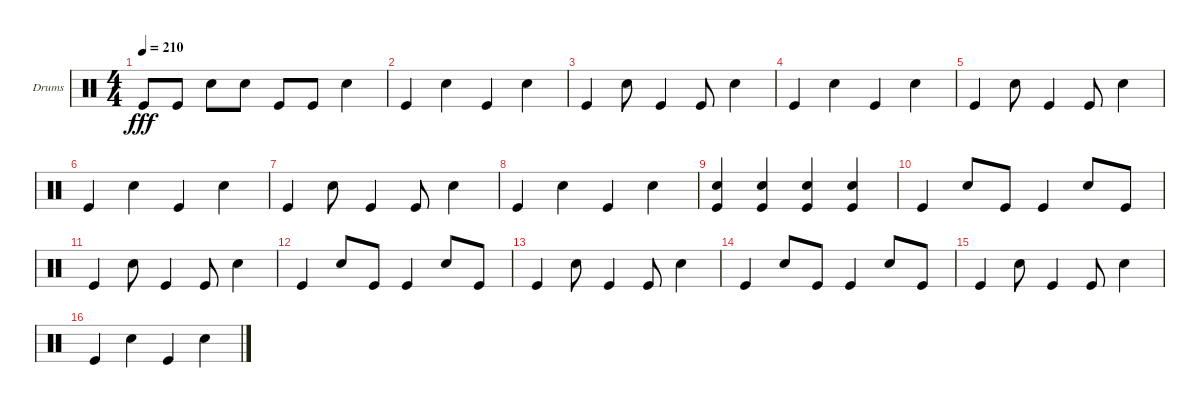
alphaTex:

\defaultSystemsLayout 4
\bracketExtendMode groupsimilarinstruments
\firstSystemTrackNameOrientation horizontal
\otherSystemsTrackNameOrientation horizontal
\track ("Helders" "Drums") {instrument percussion}
\staff {score}
\articulation defaults
\ts (4 4)
\tempo 210
\clef neutral
\ks c "Kick (hit)".8{dy fff} "Kick (hit)".8 "Snare (hit) 2".8 "Snare (hit) 2".8 "Kick (hit)".8 "Kick (hit)".8 "Snare (hit) 2".4
|
"Kick (hit)".4 "Snare (hit) 2".4 "Kick (hit)".4 "Snare (hit) 2".4 |
"Kick (hit)".4 "Snare (hit) 2".8 "Kick (hit)".4 "Kick (hit)".8 "Snare (hit) 2".4 |
"Kick (hit)".4 "Snare (hit) 2".4 "Kick (hit)".4 "Snare (hit) 2".4 |
"Kick (hit)".4 "Snare (hit) 2".8 "Kick (hit)".4 "Kick (hit)".8 "Snare (hit) 2".4 |
"Kick (hit)".4 "Snare (hit) 2".4 "Kick (hit)".4 "Snare (hit) 2".4 |
"Kick (hit)".4 "Snare (hit) 2".8 "Kick (hit)".4 "Kick (hit)".8 "Snare (hit) 2".4 |
"Kick (hit)".4 "Snare (hit) 2".4 "Kick (hit)".4 "Snare (hit) 2".4 |
("Kick (hit)" "Snare (hit) 2").4 ("Snare (hit) 2" "Kick (hit)").4 ("Kick (hit)" "Snare (hit) 2").4 ("Kick (hit)" "Snare (hit) 2").4 |
"Kick (hit)".4 "Snare (hit) 2".8 "Kick (hit)".8 "Kick (hit)".4 "Snare (hit) 2".8 "Kick (hit)".8 |
"Kick (hit)".4 "Snare (hit) 2".8 "Kick (hit)".4 "Kick (hit)".8 "Snare (hit) 2".4 |
"Kick (hit)".4 "Snare (hit) 2".8 "Kick (hit)".8 "Kick (hit)".4 "Snare (hit) 2".8 "Kick (hit)".8 |
"Kick (hit)".4 "Snare (hit) 2".8 "Kick (hit)".4 "Kick (hit)".8 "Snare (hit) 2".4 |
"Kick (hit)".4 "Snare (hit) 2".8 "Kick (hit)".8 "Kick (hit)".4 "Snare (hit) 2".8 "Kick (hit)".8 |
"Kick (hit)".4 "Snare (hit) 2".8 "Kick (hit)".4 "Kick (hit)".8 "Snare (hit) 2".4 |
"Kick (hit)".4 "Snare (hit) 2".4 "Kick (hit)".4 "Snare (hit) 2".4
